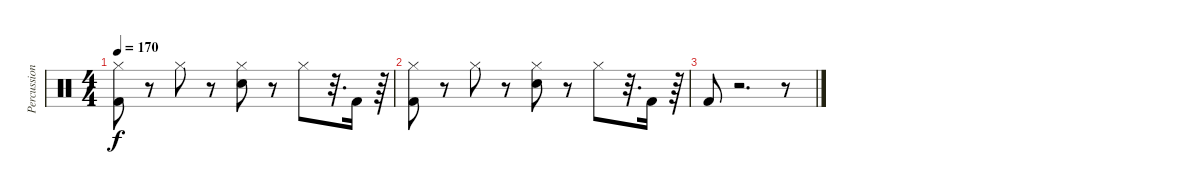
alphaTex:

\track ("Percussion" "Percussion") {instrument percussion}
\staff {score}
\articulation defaults
\ts (4 4)
\tempo 170
\clef neutral
\ks c
("Hi-Hat (closed)" "Kick (hit) 2").8{dy f} r.8 "Hi-Hat (closed)".8 r.8 ("Hi-Hat (closed)" "Electric Snare (hit)").8 r.8 "Hi-Hat (closed)".8 r.32{d} "Kick (hit) 2".16 r.64 |
("Hi-Hat (closed)" "Kick (hit) 2").8 r.8 "Hi-Hat (closed)".8 r.8 ("Hi-Hat (closed)" "Electric Snare (hit)").8 r.8 "Hi-Hat (closed)".8 r.32{d} "Kick (hit) 2".16 r.64 |
"Kick (hit) 2".8 r.2{d} r.8
